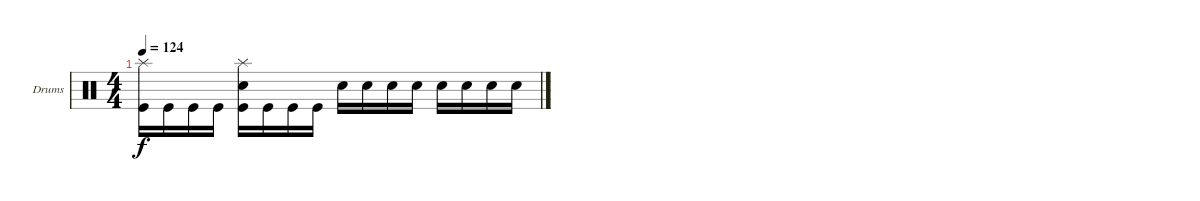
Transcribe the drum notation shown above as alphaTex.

\defaultSystemsLayout 4
\bracketExtendMode groupsimilarinstruments
\firstSystemTrackNameOrientation horizontal
\otherSystemsTrackNameOrientation horizontal
\track ("Drumkit" "Drums") {instrument percussion}
\staff {score}
\articulation defaults
\ts (4 4)
\tempo 124
\clef neutral
\ks c
("Splash (hit)" "Kick (hit)").16{dy f} "Kick (hit)".16 "Kick (hit)".16 "Kick (hit)".16 ("Splash (hit)" "Snare (hit) 2" "Kick (hit)").16 "Kick (hit)".16 "Kick (hit)".16 "Kick (hit)".16 "Snare (hit) 2".16 "Snare (hit) 2".16 "Snare (hit) 2".16 "Snare (hit) 2".16 "Snare (hit) 2".16 "Snare (hit) 2".16 "Snare (hit) 2".16 "Snare (hit) 2".16
